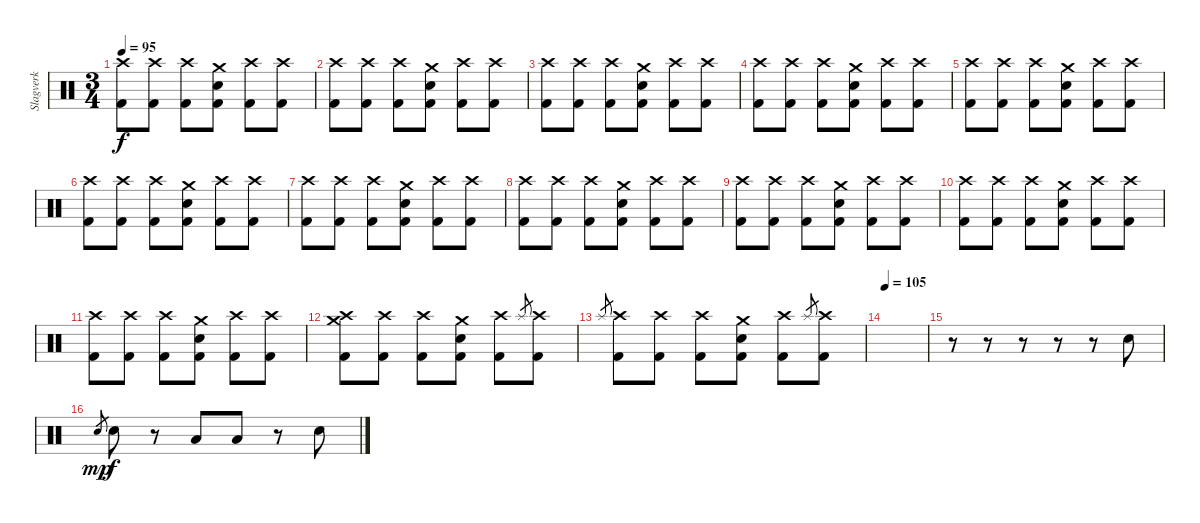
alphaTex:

\track ("Slagverk" "Slagverk") {instrument percussion}
\staff {score}
\articulation defaults
\ts (3 4)
\tempo 95
\clef neutral
\ks c
("Crash high (hit)" "Kick (hit) 2").8{dy f} ("Crash high (hit)" "Kick (hit) 2").8 ("Crash high (hit)" "Kick (hit) 2").8 ("Crash medium (hit)" "Electric Snare (hit)" "Kick (hit) 2").8 ("Crash high (hit)" "Kick (hit) 2").8 ("Crash high (hit)" "Kick (hit) 2").8 |
("Crash high (hit)" "Kick (hit) 2").8 ("Crash high (hit)" "Kick (hit) 2").8 ("Crash high (hit)" "Kick (hit) 2").8 ("Crash medium (hit)" "Electric Snare (hit)" "Kick (hit) 2").8 ("Crash high (hit)" "Kick (hit) 2").8 ("Crash high (hit)" "Kick (hit) 2").8 |
("Crash high (hit)" "Kick (hit) 2").8 ("Crash high (hit)" "Kick (hit) 2").8 ("Crash high (hit)" "Kick (hit) 2").8 ("Crash medium (hit)" "Electric Snare (hit)" "Kick (hit) 2").8 ("Crash high (hit)" "Kick (hit) 2").8 ("Crash high (hit)" "Kick (hit) 2").8 |
("Crash high (hit)" "Kick (hit) 2").8 ("Crash high (hit)" "Kick (hit) 2").8 ("Crash high (hit)" "Kick (hit) 2").8 ("Crash medium (hit)" "Electric Snare (hit)" "Kick (hit) 2").8 ("Crash high (hit)" "Kick (hit) 2").8 ("Crash high (hit)" "Kick (hit) 2").8 |
("Crash high (hit)" "Kick (hit) 2").8 ("Crash high (hit)" "Kick (hit) 2").8 ("Crash high (hit)" "Kick (hit) 2").8 ("Crash medium (hit)" "Electric Snare (hit)" "Kick (hit) 2").8 ("Crash high (hit)" "Kick (hit) 2").8 ("Crash high (hit)" "Kick (hit) 2").8 |
("Crash high (hit)" "Kick (hit) 2").8 ("Crash high (hit)" "Kick (hit) 2").8 ("Crash high (hit)" "Kick (hit) 2").8 ("Crash medium (hit)" "Electric Snare (hit)" "Kick (hit) 2").8 ("Crash high (hit)" "Kick (hit) 2").8 ("Crash high (hit)" "Kick (hit) 2").8 |
("Crash high (hit)" "Kick (hit) 2").8 ("Crash high (hit)" "Kick (hit) 2").8 ("Crash high (hit)" "Kick (hit) 2").8 ("Crash medium (hit)" "Electric Snare (hit)" "Kick (hit) 2").8 ("Crash high (hit)" "Kick (hit) 2").8 ("Crash high (hit)" "Kick (hit) 2").8 |
("Crash high (hit)" "Kick (hit) 2").8 ("Crash high (hit)" "Kick (hit) 2").8 ("Crash high (hit)" "Kick (hit) 2").8 ("Crash medium (hit)" "Electric Snare (hit)" "Kick (hit) 2").8 ("Crash high (hit)" "Kick (hit) 2").8 ("Crash high (hit)" "Kick (hit) 2").8 |
("Crash high (hit)" "Kick (hit) 2").8 ("Crash high (hit)" "Kick (hit) 2").8 ("Crash high (hit)" "Kick (hit) 2").8 ("Crash medium (hit)" "Electric Snare (hit)" "Kick (hit) 2").8 ("Crash high (hit)" "Kick (hit) 2").8 ("Crash high (hit)" "Kick (hit) 2").8 |
("Crash high (hit)" "Kick (hit) 2").8 ("Crash high (hit)" "Kick (hit) 2").8 ("Crash high (hit)" "Kick (hit) 2").8 ("Crash medium (hit)" "Electric Snare (hit)" "Kick (hit) 2").8 ("Crash high (hit)" "Kick (hit) 2").8 ("Crash high (hit)" "Kick (hit) 2").8 |
("Crash high (hit)" "Kick (hit) 2").8 ("Crash high (hit)" "Kick (hit) 2").8 ("Crash high (hit)" "Kick (hit) 2").8 ("Crash medium (hit)" "Electric Snare (hit)" "Kick (hit) 2").8 ("Crash high (hit)" "Kick (hit) 2").8 ("Crash high (hit)" "Kick (hit) 2").8 |
("Crash high (hit)" "Crash medium (hit)" "Kick (hit) 2").8 ("Crash high (hit)" "Kick (hit) 2").8 ("Crash high (hit)" "Kick (hit) 2").8 ("Crash medium (hit)" "Electric Snare (hit)" "Kick (hit) 2").8 ("Crash high (hit)" "Kick (hit) 2").8 "Splash (hit)".8{gr} ("Crash high (hit)" "Kick (hit) 2").8 |
"Splash (hit)".8{gr} ("Crash high (hit)" "Kick (hit) 2").8 ("Crash high (hit)" "Kick (hit) 2").8 ("Crash high (hit)" "Kick (hit) 2").8 ("Crash medium (hit)" "Electric Snare (hit)" "Kick (hit) 2").8 ("Crash high (hit)" "Kick (hit) 2").8 "Splash (hit)".8{gr} ("Crash high (hit)" "Kick (hit) 2").8 |
\tempo 105
|
r.8 r.8 r.8 r.8 r.8 "Electric Snare (hit)".8 |
"Electric Snare (hit)".8{gr dy mp} "Electric Snare (hit)".8{dy f} r.8 "Low Tom (hit)".8 "Low Tom (hit)".8 r.8 "Electric Snare (hit)".8
